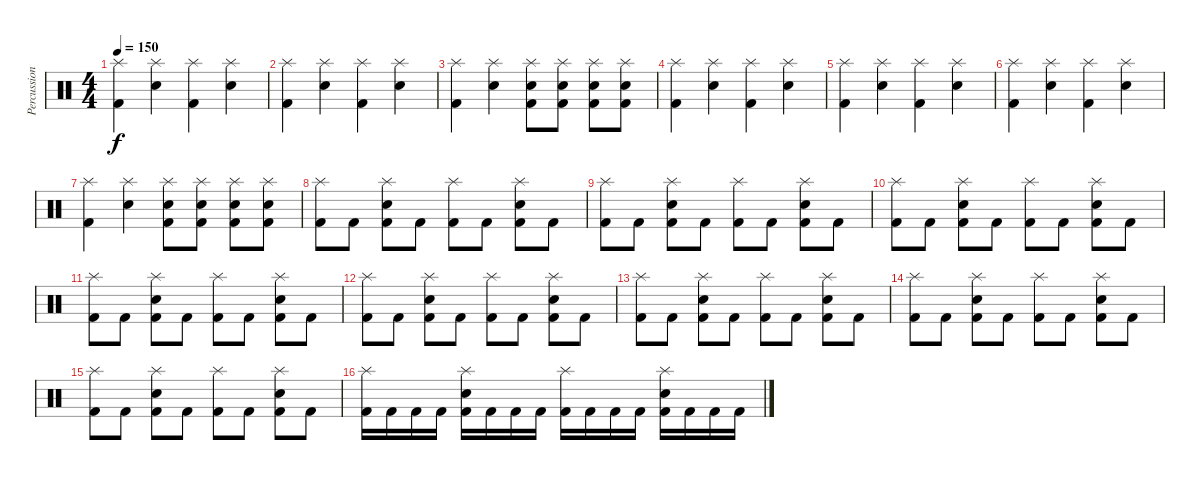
\track ("Percussion" "Percussion") {instrument percussion}
\staff {score}
\articulation defaults
\ts (4 4)
\tempo 150
\clef neutral
\ks c
("Splash (hit)" "Kick (hit) 2").4{dy f} ("Splash (hit)" "Electric Snare (hit)").4 ("Splash (hit)" "Kick (hit) 2").4 ("Splash (hit)" "Electric Snare (hit)").4 |
("Splash (hit)" "Kick (hit) 2").4 ("Splash (hit)" "Electric Snare (hit)").4 ("Splash (hit)" "Kick (hit) 2").4 ("Splash (hit)" "Electric Snare (hit)").4 |
("Splash (hit)" "Kick (hit) 2").4 ("Splash (hit)" "Electric Snare (hit)").4 ("Splash (hit)" "Electric Snare (hit)" "Kick (hit) 2").8 ("Splash (hit)" "Electric Snare (hit)" "Kick (hit) 2").8 ("Splash (hit)" "Electric Snare (hit)" "Kick (hit) 2").8 ("Splash (hit)" "Electric Snare (hit)" "Kick (hit) 2").8 |
("Splash (hit)" "Kick (hit) 2").4 ("Splash (hit)" "Electric Snare (hit)").4 ("Splash (hit)" "Kick (hit) 2").4 ("Splash (hit)" "Electric Snare (hit)").4 |
("Splash (hit)" "Kick (hit) 2").4 ("Splash (hit)" "Electric Snare (hit)").4 ("Splash (hit)" "Kick (hit) 2").4 ("Splash (hit)" "Electric Snare (hit)").4 |
("Splash (hit)" "Kick (hit) 2").4 ("Splash (hit)" "Electric Snare (hit)").4 ("Splash (hit)" "Kick (hit) 2").4 ("Splash (hit)" "Electric Snare (hit)").4 |
("Splash (hit)" "Kick (hit) 2").4 ("Splash (hit)" "Electric Snare (hit)").4 ("Splash (hit)" "Electric Snare (hit)" "Kick (hit) 2").8 ("Splash (hit)" "Electric Snare (hit)" "Kick (hit) 2").8 ("Splash (hit)" "Electric Snare (hit)" "Kick (hit) 2").8 ("Splash (hit)" "Electric Snare (hit)" "Kick (hit) 2").8 |
("Splash (hit)" "Kick (hit) 2").8 "Kick (hit) 2".8 ("Electric Snare (hit)" "Splash (hit)" "Kick (hit) 2").8 "Kick (hit) 2".8 ("Splash (hit)" "Kick (hit) 2").8 "Kick (hit) 2".8 ("Electric Snare (hit)" "Splash (hit)" "Kick (hit) 2").8 "Kick (hit) 2".8 |
("Splash (hit)" "Kick (hit) 2").8 "Kick (hit) 2".8 ("Electric Snare (hit)" "Splash (hit)" "Kick (hit) 2").8 "Kick (hit) 2".8 ("Splash (hit)" "Kick (hit) 2").8 "Kick (hit) 2".8 ("Electric Snare (hit)" "Splash (hit)" "Kick (hit) 2").8 "Kick (hit) 2".8 |
("Splash (hit)" "Kick (hit) 2").8 "Kick (hit) 2".8 ("Electric Snare (hit)" "Splash (hit)" "Kick (hit) 2").8 "Kick (hit) 2".8 ("Splash (hit)" "Kick (hit) 2").8 "Kick (hit) 2".8 ("Electric Snare (hit)" "Splash (hit)" "Kick (hit) 2").8 "Kick (hit) 2".8 |
("Splash (hit)" "Kick (hit) 2").8 "Kick (hit) 2".8 ("Electric Snare (hit)" "Splash (hit)" "Kick (hit) 2").8 "Kick (hit) 2".8 ("Splash (hit)" "Kick (hit) 2").8 "Kick (hit) 2".8 ("Electric Snare (hit)" "Splash (hit)" "Kick (hit) 2").8 "Kick (hit) 2".8 |
("Splash (hit)" "Kick (hit) 2").8 "Kick (hit) 2".8 ("Electric Snare (hit)" "Splash (hit)" "Kick (hit) 2").8 "Kick (hit) 2".8 ("Splash (hit)" "Kick (hit) 2").8 "Kick (hit) 2".8 ("Electric Snare (hit)" "Splash (hit)" "Kick (hit) 2").8 "Kick (hit) 2".8 |
("Splash (hit)" "Kick (hit) 2").8 "Kick (hit) 2".8 ("Electric Snare (hit)" "Splash (hit)" "Kick (hit) 2").8 "Kick (hit) 2".8 ("Splash (hit)" "Kick (hit) 2").8 "Kick (hit) 2".8 ("Electric Snare (hit)" "Splash (hit)" "Kick (hit) 2").8 "Kick (hit) 2".8 |
("Splash (hit)" "Kick (hit) 2").8 "Kick (hit) 2".8 ("Electric Snare (hit)" "Splash (hit)" "Kick (hit) 2").8 "Kick (hit) 2".8 ("Splash (hit)" "Kick (hit) 2").8 "Kick (hit) 2".8 ("Electric Snare (hit)" "Splash (hit)" "Kick (hit) 2").8 "Kick (hit) 2".8 |
("Splash (hit)" "Kick (hit) 2").8 "Kick (hit) 2".8 ("Electric Snare (hit)" "Splash (hit)" "Kick (hit) 2").8 "Kick (hit) 2".8 ("Splash (hit)" "Kick (hit) 2").8 "Kick (hit) 2".8 ("Electric Snare (hit)" "Splash (hit)" "Kick (hit) 2").8 "Kick (hit) 2".8 |
("Splash (hit)" "Kick (hit) 2").16 "Kick (hit) 2".16 "Kick (hit) 2".16 "Kick (hit) 2".16 ("Electric Snare (hit)" "Splash (hit)" "Kick (hit) 2").16 "Kick (hit) 2".16 "Kick (hit) 2".16 "Kick (hit) 2".16 ("Splash (hit)" "Kick (hit) 2").16 "Kick (hit) 2".16 "Kick (hit) 2".16 "Kick (hit) 2".16 ("Electric Snare (hit)" "Splash (hit)" "Kick (hit) 2").16 "Kick (hit) 2".16 "Kick (hit) 2".16 "Kick (hit) 2".16
